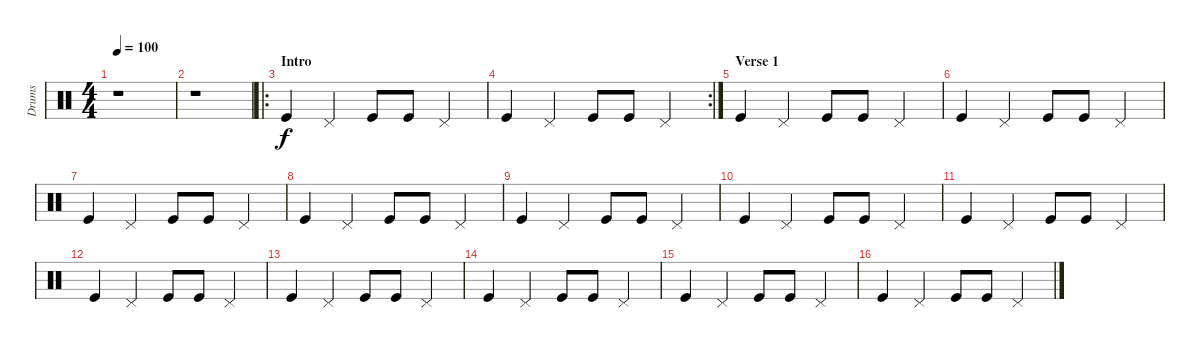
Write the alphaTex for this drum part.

\track ("Drums" "Drums") {instrument percussion}
\staff {score}
\articulation defaults
\ts (4 4)
\tempo 100
\clef neutral
\ks c
r.1{dy f} |
r.1 |
\ro
\section ("" "Intro")
"Kick (hit)".4 "Pedal Hi-Hat (hit)".4 "Kick (hit)".8 "Kick (hit)".8 "Pedal Hi-Hat (hit)".4 |
\rc 2 "Kick (hit)".4 "Pedal Hi-Hat (hit)".4 "Kick (hit)".8 "Kick (hit)".8 "Pedal Hi-Hat (hit)".4
|
\section ("" "Verse 1")
"Kick (hit)".4 "Pedal Hi-Hat (hit)".4 "Kick (hit)".8 "Kick (hit)".8 "Pedal Hi-Hat (hit)".4 |
"Kick (hit)".4 "Pedal Hi-Hat (hit)".4 "Kick (hit)".8 "Kick (hit)".8 "Pedal Hi-Hat (hit)".4 |
"Kick (hit)".4 "Pedal Hi-Hat (hit)".4 "Kick (hit)".8 "Kick (hit)".8 "Pedal Hi-Hat (hit)".4 |
"Kick (hit)".4 "Pedal Hi-Hat (hit)".4 "Kick (hit)".8 "Kick (hit)".8 "Pedal Hi-Hat (hit)".4 |
"Kick (hit)".4 "Pedal Hi-Hat (hit)".4 "Kick (hit)".8 "Kick (hit)".8 "Pedal Hi-Hat (hit)".4 |
"Kick (hit)".4 "Pedal Hi-Hat (hit)".4 "Kick (hit)".8 "Kick (hit)".8 "Pedal Hi-Hat (hit)".4 |
"Kick (hit)".4 "Pedal Hi-Hat (hit)".4 "Kick (hit)".8 "Kick (hit)".8 "Pedal Hi-Hat (hit)".4 |
"Kick (hit)".4 "Pedal Hi-Hat (hit)".4 "Kick (hit)".8 "Kick (hit)".8 "Pedal Hi-Hat (hit)".4 |
"Kick (hit)".4 "Pedal Hi-Hat (hit)".4 "Kick (hit)".8 "Kick (hit)".8 "Pedal Hi-Hat (hit)".4 |
"Kick (hit)".4 "Pedal Hi-Hat (hit)".4 "Kick (hit)".8 "Kick (hit)".8 "Pedal Hi-Hat (hit)".4 |
"Kick (hit)".4 "Pedal Hi-Hat (hit)".4 "Kick (hit)".8 "Kick (hit)".8 "Pedal Hi-Hat (hit)".4 |
"Kick (hit)".4 "Pedal Hi-Hat (hit)".4 "Kick (hit)".8 "Kick (hit)".8 "Pedal Hi-Hat (hit)".4
